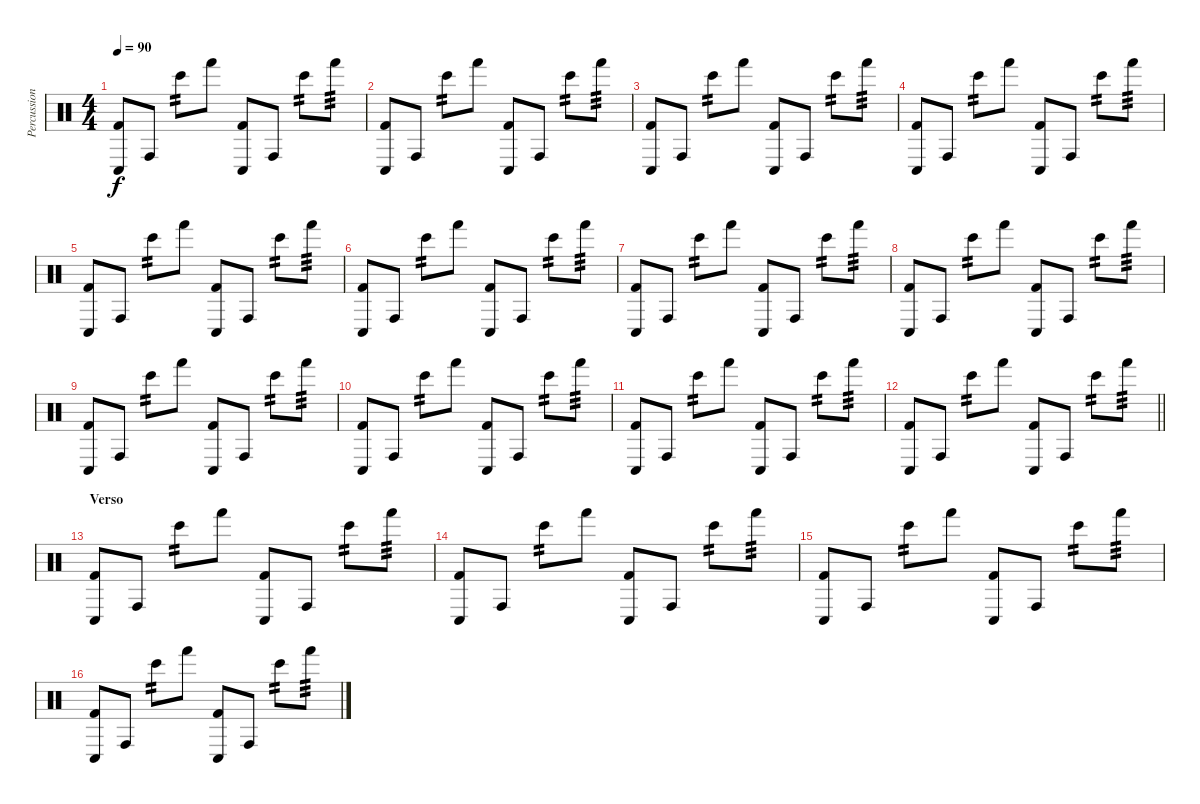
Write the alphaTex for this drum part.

\track ("Percussion" "Percussion") {instrument percussion}
\staff {score}
\articulation defaults
\ts (4 4)
\tempo 90
\clef neutral
\ks c
("Conga low (hit)" "Kick (hit) 2").8{dy f} "Conga high (hit)".8 "Bongo High (hit)".8{tp 2} "Hand (hit)".8 ("Conga low (hit)" "Kick (hit) 2").8 "Conga high (hit)".8 "Bongo High (hit)".8{tp 2} "Hand (hit)".8{tp 3} |
("Conga low (hit)" "Kick (hit) 2").8 "Conga high (hit)".8 "Bongo High (hit)".8{tp 2} "Hand (hit)".8 ("Conga low (hit)" "Kick (hit) 2").8 "Conga high (hit)".8 "Bongo High (hit)".8{tp 2} "Hand (hit)".8{tp 3} |
("Conga low (hit)" "Kick (hit) 2").8 "Conga high (hit)".8 "Bongo High (hit)".8{tp 2} "Hand (hit)".8 ("Conga low (hit)" "Kick (hit) 2").8 "Conga high (hit)".8 "Bongo High (hit)".8{tp 2} "Hand (hit)".8{tp 3} |
("Conga low (hit)" "Kick (hit) 2").8 "Conga high (hit)".8 "Bongo High (hit)".8{tp 2} "Hand (hit)".8 ("Conga low (hit)" "Kick (hit) 2").8 "Conga high (hit)".8 "Bongo High (hit)".8{tp 2} "Hand (hit)".8{tp 3} |
("Conga low (hit)" "Kick (hit) 2").8 "Conga high (hit)".8 "Bongo High (hit)".8{tp 2} "Hand (hit)".8 ("Conga low (hit)" "Kick (hit) 2").8 "Conga high (hit)".8 "Bongo High (hit)".8{tp 2} "Hand (hit)".8{tp 3} |
("Conga low (hit)" "Kick (hit) 2").8 "Conga high (hit)".8 "Bongo High (hit)".8{tp 2} "Hand (hit)".8 ("Conga low (hit)" "Kick (hit) 2").8 "Conga high (hit)".8 "Bongo High (hit)".8{tp 2} "Hand (hit)".8{tp 3} |
("Conga low (hit)" "Kick (hit) 2").8 "Conga high (hit)".8 "Bongo High (hit)".8{tp 2} "Hand (hit)".8 ("Conga low (hit)" "Kick (hit) 2").8 "Conga high (hit)".8 "Bongo High (hit)".8{tp 2} "Hand (hit)".8{tp 3} |
("Conga low (hit)" "Kick (hit) 2").8 "Conga high (hit)".8 "Bongo High (hit)".8{tp 2} "Hand (hit)".8 ("Conga low (hit)" "Kick (hit) 2").8 "Conga high (hit)".8 "Bongo High (hit)".8{tp 2} "Hand (hit)".8{tp 3} |
("Conga low (hit)" "Kick (hit) 2").8 "Conga high (hit)".8 "Bongo High (hit)".8{tp 2} "Hand (hit)".8 ("Conga low (hit)" "Kick (hit) 2").8 "Conga high (hit)".8 "Bongo High (hit)".8{tp 2} "Hand (hit)".8{tp 3} |
("Conga low (hit)" "Kick (hit) 2").8 "Conga high (hit)".8 "Bongo High (hit)".8{tp 2} "Hand (hit)".8 ("Conga low (hit)" "Kick (hit) 2").8 "Conga high (hit)".8 "Bongo High (hit)".8{tp 2} "Hand (hit)".8{tp 3} |
("Conga low (hit)" "Kick (hit) 2").8 "Conga high (hit)".8 "Bongo High (hit)".8{tp 2} "Hand (hit)".8 ("Conga low (hit)" "Kick (hit) 2").8 "Conga high (hit)".8 "Bongo High (hit)".8{tp 2} "Hand (hit)".8{tp 3} |
\barLineRight lightlight
("Conga low (hit)" "Kick (hit) 2").8 "Conga high (hit)".8 "Bongo High (hit)".8{tp 2} "Hand (hit)".8 ("Conga low (hit)" "Kick (hit) 2").8 "Conga high (hit)".8 "Bongo High (hit)".8{tp 2} "Hand (hit)".8{tp 3} |
\section ("" "Verso")
("Conga low (hit)" "Kick (hit) 2").8 "Conga high (hit)".8 "Bongo High (hit)".8{tp 2} "Hand (hit)".8 ("Conga low (hit)" "Kick (hit) 2").8 "Conga high (hit)".8 "Bongo High (hit)".8{tp 2} "Hand (hit)".8{tp 3} |
("Conga low (hit)" "Kick (hit) 2").8 "Conga high (hit)".8 "Bongo High (hit)".8{tp 2} "Hand (hit)".8 ("Conga low (hit)" "Kick (hit) 2").8 "Conga high (hit)".8 "Bongo High (hit)".8{tp 2} "Hand (hit)".8{tp 3} |
("Conga low (hit)" "Kick (hit) 2").8 "Conga high (hit)".8 "Bongo High (hit)".8{tp 2} "Hand (hit)".8 ("Conga low (hit)" "Kick (hit) 2").8 "Conga high (hit)".8 "Bongo High (hit)".8{tp 2} "Hand (hit)".8{tp 3} |
("Conga low (hit)" "Kick (hit) 2").8 "Conga high (hit)".8 "Bongo High (hit)".8{tp 2} "Hand (hit)".8 ("Conga low (hit)" "Kick (hit) 2").8 "Conga high (hit)".8 "Bongo High (hit)".8{tp 2} "Hand (hit)".8{tp 3}
